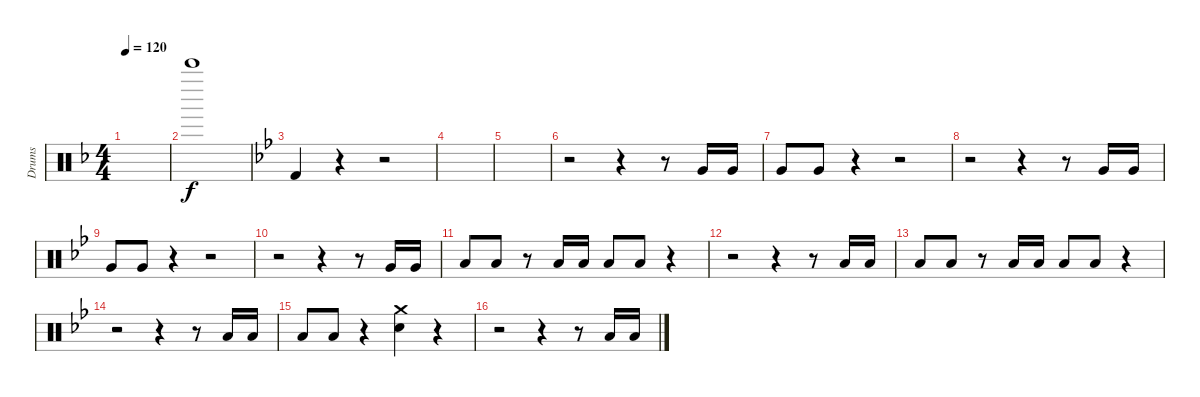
\track ("Drums" "Drums") {instrument percussion}
\staff {score}
\articulation defaults
\ts (4 4)
\tempo 120
\clef neutral
\ks f
|
"Bell Tree (hit)".1 |
\ks bb "Kick (hit) 2".4{dy f}
r.4 r.2 |
|
|
r.2 r.4 r.8 "Very Low Tom (hit)".16 "Very Low Tom (hit)".16 |
"Very Low Tom (hit)".8 "Very Low Tom (hit)".8 r.4 r.2 |
r.2 r.4 r.8 "Very Low Tom (hit)".16 "Very Low Tom (hit)".16 |
"Very Low Tom (hit)".8 "Very Low Tom (hit)".8 r.4 r.2 |
r.2 r.4 r.8 "Very Low Tom (hit)".16 "Very Low Tom (hit)".16 |
"Low Floor Tom (hit)".8 "Low Floor Tom (hit)".8 r.8 "Low Floor Tom (hit)".16 "Low Floor Tom (hit)".16 "Low Floor Tom (hit)".8 "Low Floor Tom (hit)".8 r.4 |
r.2 r.4 r.8 "Low Floor Tom (hit)".16 "Low Floor Tom (hit)".16 |
"Low Floor Tom (hit)".8 "Low Floor Tom (hit)".8 r.8 "Low Floor Tom (hit)".16 "Low Floor Tom (hit)".16 "Low Floor Tom (hit)".8 "Low Floor Tom (hit)".8 r.4 |
r.2 r.4 r.8 "Low Floor Tom (hit)".16 "Low Floor Tom (hit)".16 |
"Low Floor Tom (hit)".8 "Low Floor Tom (hit)".8 r.4 ("Crash medium (hit)" "Electric Snare (hit)").4 r.4 |
r.2 r.4 r.8 "Low Floor Tom (hit)".16 "Low Floor Tom (hit)".16
